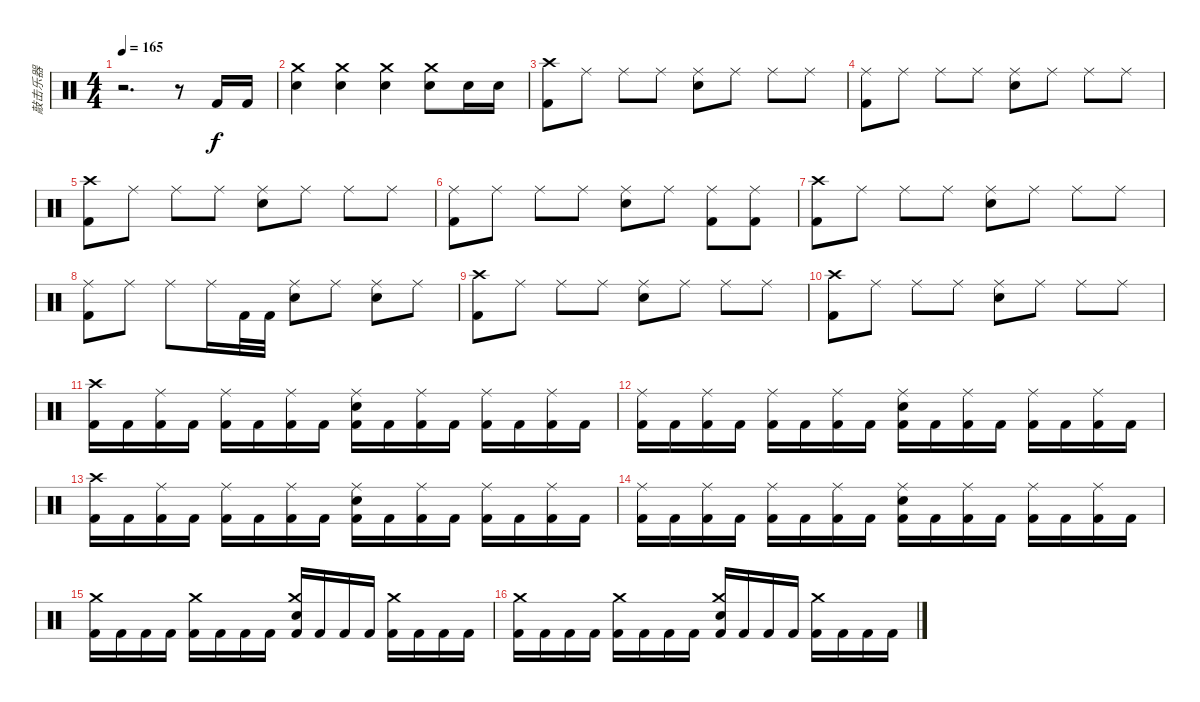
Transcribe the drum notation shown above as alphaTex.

\track ("敲击乐器" "敲击乐器") {instrument percussion}
\staff {score}
\articulation defaults
\ts (4 4)
\tempo 165
\clef neutral
\ks c
r.2{d dy f} r.8 "Kick (hit) 2".16 "Kick (hit) 2".16 |
("Crash medium (hit)" "Snare (hit) 2").4 ("Crash medium (hit)" "Snare (hit) 2").4 ("Crash medium (hit)" "Snare (hit) 2").4 ("Crash medium (hit)" "Snare (hit) 2").8 "Snare (hit) 2".16 "Snare (hit) 2".16 |
("Crash high (hit)" "Kick (hit) 2").8 "Ride (middle)".8 "Ride (middle)".8 "Ride (middle)".8 ("Ride (middle)" "Snare (hit) 2").8 "Ride (middle)".8 "Ride (middle)".8 "Ride (middle)".8 |
("Ride (middle)" "Kick (hit) 2").8 "Ride (middle)".8 "Ride (middle)".8 "Ride (middle)".8 ("Ride (middle)" "Snare (hit) 2").8 "Ride (middle)".8 "Ride (middle)".8 "Ride (middle)".8 |
("Crash high (hit)" "Kick (hit) 2").8 "Ride (middle)".8 "Ride (middle)".8 "Ride (middle)".8 ("Ride (middle)" "Snare (hit) 2").8 "Ride (middle)".8 "Ride (middle)".8 "Ride (middle)".8 |
("Ride (middle)" "Kick (hit) 2").8 "Ride (middle)".8 "Ride (middle)".8 "Ride (middle)".8 ("Ride (middle)" "Snare (hit) 2").8 "Ride (middle)".8 ("Ride (middle)" "Kick (hit) 2").8 ("Ride (middle)" "Kick (hit) 2").8 |
("Crash high (hit)" "Kick (hit) 2").8 "Ride (middle)".8 "Ride (middle)".8 "Ride (middle)".8 ("Ride (middle)" "Snare (hit) 2").8 "Ride (middle)".8 "Ride (middle)".8 "Ride (middle)".8 |
("Ride (middle)" "Kick (hit) 2").8 "Ride (middle)".8 "Ride (middle)".8 "Ride (middle)".16 "Kick (hit) 2".32 "Kick (hit) 2".32 ("Ride (middle)" "Snare (hit) 2").8 "Ride (middle)".8 ("Ride (middle)" "Snare (hit) 2").8 "Ride (middle)".8 |
("Crash high (hit)" "Kick (hit) 2").8 "Ride (middle)".8 "Ride (middle)".8 "Ride (middle)".8 ("Ride (middle)" "Snare (hit) 2").8 "Ride (middle)".8 "Ride (middle)".8 "Ride (middle)".8 |
("Crash high (hit)" "Kick (hit) 2").8 "Ride (middle)".8 "Ride (middle)".8 "Ride (middle)".8 ("Ride (middle)" "Snare (hit) 2").8 "Ride (middle)".8 "Ride (middle)".8 "Ride (middle)".8 |
("Crash high (hit)" "Kick (hit) 2").16 "Kick (hit) 2".16 ("Ride (middle)" "Kick (hit) 2").16 "Kick (hit) 2".16 ("Ride (middle)" "Kick (hit) 2").16 "Kick (hit) 2".16 ("Ride (middle)" "Kick (hit) 2").16 "Kick (hit) 2".16 ("Ride (middle)" "Kick (hit) 2" "Snare (hit) 2").16 "Kick (hit) 2".16 ("Ride (middle)" "Kick (hit) 2").16 "Kick (hit) 2".16 ("Ride (middle)" "Kick (hit) 2").16 "Kick (hit) 2".16 ("Ride (middle)" "Kick (hit) 2").16 "Kick (hit) 2".16 |
("Ride (middle)" "Kick (hit) 2").16 "Kick (hit) 2".16 ("Ride (middle)" "Kick (hit) 2").16 "Kick (hit) 2".16 ("Ride (middle)" "Kick (hit) 2").16 "Kick (hit) 2".16 ("Ride (middle)" "Kick (hit) 2").16 "Kick (hit) 2".16 ("Ride (middle)" "Kick (hit) 2" "Snare (hit) 2").16 "Kick (hit) 2".16 ("Ride (middle)" "Kick (hit) 2").16 "Kick (hit) 2".16 ("Ride (middle)" "Kick (hit) 2").16 "Kick (hit) 2".16 ("Ride (middle)" "Kick (hit) 2").16 "Kick (hit) 2".16 |
("Crash high (hit)" "Kick (hit) 2").16 "Kick (hit) 2".16 ("Ride (middle)" "Kick (hit) 2").16 "Kick (hit) 2".16 ("Ride (middle)" "Kick (hit) 2").16 "Kick (hit) 2".16 ("Ride (middle)" "Kick (hit) 2").16 "Kick (hit) 2".16 ("Ride (middle)" "Kick (hit) 2" "Snare (hit) 2").16 "Kick (hit) 2".16 ("Ride (middle)" "Kick (hit) 2").16 "Kick (hit) 2".16 ("Ride (middle)" "Kick (hit) 2").16 "Kick (hit) 2".16 ("Ride (middle)" "Kick (hit) 2").16 "Kick (hit) 2".16 |
("Ride (middle)" "Kick (hit) 2").16 "Kick (hit) 2".16 ("Ride (middle)" "Kick (hit) 2").16 "Kick (hit) 2".16 ("Ride (middle)" "Kick (hit) 2").16 "Kick (hit) 2".16 ("Ride (middle)" "Kick (hit) 2").16 "Kick (hit) 2".16 ("Ride (middle)" "Kick (hit) 2" "Snare (hit) 2").16 "Kick (hit) 2".16 ("Ride (middle)" "Kick (hit) 2").16 "Kick (hit) 2".16 ("Ride (middle)" "Kick (hit) 2").16 "Kick (hit) 2".16 ("Ride (middle)" "Kick (hit) 2").16 "Kick (hit) 2".16 |
("Crash medium (hit)" "Kick (hit) 2").16 "Kick (hit) 2".16 "Kick (hit) 2".16 "Kick (hit) 2".16 ("Crash medium (hit)" "Kick (hit) 2").16 "Kick (hit) 2".16 "Kick (hit) 2".16 "Kick (hit) 2".16 ("Crash medium (hit)" "Kick (hit) 2" "Snare (hit) 2").16 "Kick (hit) 2".16 "Kick (hit) 2".16 "Kick (hit) 2".16 ("Crash medium (hit)" "Kick (hit) 2").16 "Kick (hit) 2".16 "Kick (hit) 2".16 "Kick (hit) 2".16 |
("Crash medium (hit)" "Kick (hit) 2").16 "Kick (hit) 2".16 "Kick (hit) 2".16 "Kick (hit) 2".16 ("Crash medium (hit)" "Kick (hit) 2").16 "Kick (hit) 2".16 "Kick (hit) 2".16 "Kick (hit) 2".16 ("Crash medium (hit)" "Kick (hit) 2" "Snare (hit) 2").16 "Kick (hit) 2".16 "Kick (hit) 2".16 "Kick (hit) 2".16 ("Crash medium (hit)" "Kick (hit) 2").16 "Kick (hit) 2".16 "Kick (hit) 2".16 "Kick (hit) 2".16
